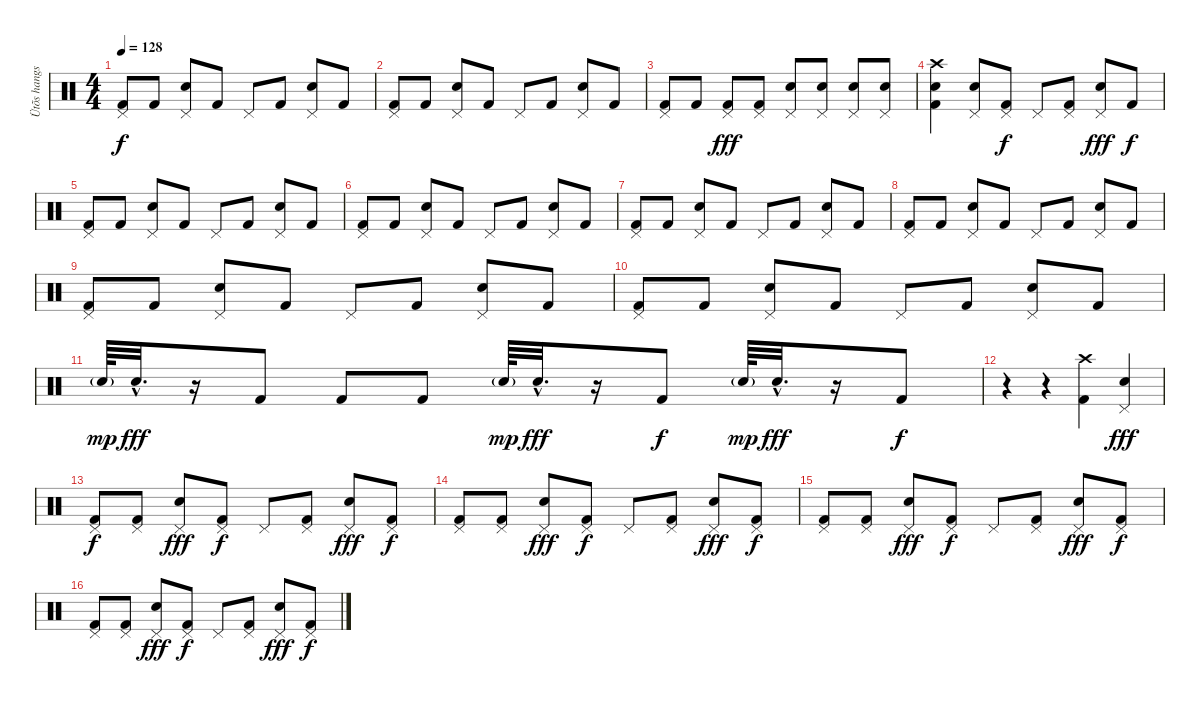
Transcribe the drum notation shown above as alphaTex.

\track ("Ütõs hangszer" "Ütõs hangs") {instrument percussion}
\staff {score}
\articulation defaults
\ts (4 4)
\tempo 128
\clef neutral
\ks c
("Kick (hit) 2" "Pedal Hi-Hat (hit)").8{dy f} "Kick (hit) 2".8 ("Electric Snare (hit)" "Pedal Hi-Hat (hit)").8 "Kick (hit) 2".8 "Pedal Hi-Hat (hit)".8 "Kick (hit) 2".8 ("Electric Snare (hit)" "Pedal Hi-Hat (hit)").8 "Kick (hit) 2".8 |
("Kick (hit) 2" "Pedal Hi-Hat (hit)").8 "Kick (hit) 2".8 ("Electric Snare (hit)" "Pedal Hi-Hat (hit)").8 "Kick (hit) 2".8 "Pedal Hi-Hat (hit)".8 "Kick (hit) 2".8 ("Electric Snare (hit)" "Pedal Hi-Hat (hit)").8 "Kick (hit) 2".8 |
("Kick (hit) 2" "Pedal Hi-Hat (hit)").8 "Kick (hit) 2".8 ("Kick (hit) 2" "Pedal Hi-Hat (hit)").8{dy fff} ("Kick (hit) 2" "Pedal Hi-Hat (hit)").8 ("Electric Snare (hit)" "Pedal Hi-Hat (hit)").8 ("Electric Snare (hit)" "Pedal Hi-Hat (hit)").8 ("Electric Snare (hit)" "Pedal Hi-Hat (hit)").8 ("Electric Snare (hit)" "Pedal Hi-Hat (hit)").8 |
("Electric Snare (hit)" "Kick (hit) 2" "Crash high (hit)").4 ("Electric Snare (hit)" "Pedal Hi-Hat (hit)").8 ("Kick (hit) 2" "Pedal Hi-Hat (hit)").8{dy f} "Pedal Hi-Hat (hit)".8 ("Kick (hit) 2" "Pedal Hi-Hat (hit)").8 ("Electric Snare (hit)" "Pedal Hi-Hat (hit)").8{dy fff} "Kick (hit) 2".8{dy f} |
("Kick (hit) 2" "Pedal Hi-Hat (hit)").8 "Kick (hit) 2".8 ("Electric Snare (hit)" "Pedal Hi-Hat (hit)").8 "Kick (hit) 2".8 "Pedal Hi-Hat (hit)".8 "Kick (hit) 2".8 ("Electric Snare (hit)" "Pedal Hi-Hat (hit)").8 "Kick (hit) 2".8 |
("Kick (hit) 2" "Pedal Hi-Hat (hit)").8 "Kick (hit) 2".8 ("Electric Snare (hit)" "Pedal Hi-Hat (hit)").8 "Kick (hit) 2".8 "Pedal Hi-Hat (hit)".8 "Kick (hit) 2".8 ("Electric Snare (hit)" "Pedal Hi-Hat (hit)").8 "Kick (hit) 2".8 |
("Kick (hit) 2" "Pedal Hi-Hat (hit)").8 "Kick (hit) 2".8 ("Electric Snare (hit)" "Pedal Hi-Hat (hit)").8 "Kick (hit) 2".8 "Pedal Hi-Hat (hit)".8 "Kick (hit) 2".8 ("Electric Snare (hit)" "Pedal Hi-Hat (hit)").8 "Kick (hit) 2".8 |
("Kick (hit) 2" "Pedal Hi-Hat (hit)").8 "Kick (hit) 2".8 ("Electric Snare (hit)" "Pedal Hi-Hat (hit)").8 "Kick (hit) 2".8 "Pedal Hi-Hat (hit)".8 "Kick (hit) 2".8 ("Electric Snare (hit)" "Pedal Hi-Hat (hit)").8 "Kick (hit) 2".8 |
("Kick (hit) 2" "Pedal Hi-Hat (hit)").8 "Kick (hit) 2".8 ("Electric Snare (hit)" "Pedal Hi-Hat (hit)").8 "Kick (hit) 2".8 "Pedal Hi-Hat (hit)".8 "Kick (hit) 2".8 ("Electric Snare (hit)" "Pedal Hi-Hat (hit)").8 "Kick (hit) 2".8 |
("Kick (hit) 2" "Pedal Hi-Hat (hit)").8 "Kick (hit) 2".8 ("Electric Snare (hit)" "Pedal Hi-Hat (hit)").8 "Kick (hit) 2".8 "Pedal Hi-Hat (hit)".8 "Kick (hit) 2".8 ("Electric Snare (hit)" "Pedal Hi-Hat (hit)").8 "Kick (hit) 2".8 |
"Electric Snare (hit)"{g}.64{dy mp} "Electric Snare (hit)"{hac}.32{d dy fff} r.16 "Kick (hit) 2".8 "Kick (hit) 2".8 "Kick (hit) 2".8 "Electric Snare (hit)"{g}.64{dy mp} "Electric Snare (hit)"{hac}.32{d dy fff} r.16 "Kick (hit) 2".8{dy f} "Electric Snare (hit)"{g}.64{dy mp} "Electric Snare (hit)"{hac}.32{d dy fff} r.16 "Kick (hit) 2".8{dy f} |
r.4 r.4 ("Kick (hit) 2" "Crash high (hit)").4 ("Electric Snare (hit)" "Pedal Hi-Hat (hit)").4{dy fff} |
("Kick (hit) 2" "Pedal Hi-Hat (hit)").8{dy f} ("Kick (hit) 2" "Pedal Hi-Hat (hit)").8 ("Electric Snare (hit)" "Pedal Hi-Hat (hit)").8{dy fff} ("Kick (hit) 2" "Pedal Hi-Hat (hit)").8{dy f} "Pedal Hi-Hat (hit)".8 ("Kick (hit) 2" "Pedal Hi-Hat (hit)").8 ("Electric Snare (hit)" "Pedal Hi-Hat (hit)").8{dy fff} ("Kick (hit) 2" "Pedal Hi-Hat (hit)").8{dy f} |
("Kick (hit) 2" "Pedal Hi-Hat (hit)").8 ("Kick (hit) 2" "Pedal Hi-Hat (hit)").8 ("Electric Snare (hit)" "Pedal Hi-Hat (hit)").8{dy fff} ("Kick (hit) 2" "Pedal Hi-Hat (hit)").8{dy f} "Pedal Hi-Hat (hit)".8 ("Kick (hit) 2" "Pedal Hi-Hat (hit)").8 ("Electric Snare (hit)" "Pedal Hi-Hat (hit)").8{dy fff} ("Kick (hit) 2" "Pedal Hi-Hat (hit)").8{dy f} |
("Kick (hit) 2" "Pedal Hi-Hat (hit)").8 ("Kick (hit) 2" "Pedal Hi-Hat (hit)").8 ("Electric Snare (hit)" "Pedal Hi-Hat (hit)").8{dy fff} ("Kick (hit) 2" "Pedal Hi-Hat (hit)").8{dy f} "Pedal Hi-Hat (hit)".8 ("Kick (hit) 2" "Pedal Hi-Hat (hit)").8 ("Electric Snare (hit)" "Pedal Hi-Hat (hit)").8{dy fff} ("Kick (hit) 2" "Pedal Hi-Hat (hit)").8{dy f} |
("Kick (hit) 2" "Pedal Hi-Hat (hit)").8 ("Kick (hit) 2" "Pedal Hi-Hat (hit)").8 ("Electric Snare (hit)" "Pedal Hi-Hat (hit)").8{dy fff} ("Kick (hit) 2" "Pedal Hi-Hat (hit)").8{dy f} "Pedal Hi-Hat (hit)".8 ("Kick (hit) 2" "Pedal Hi-Hat (hit)").8 ("Electric Snare (hit)" "Pedal Hi-Hat (hit)").8{dy fff} ("Kick (hit) 2" "Pedal Hi-Hat (hit)").8{dy f}
